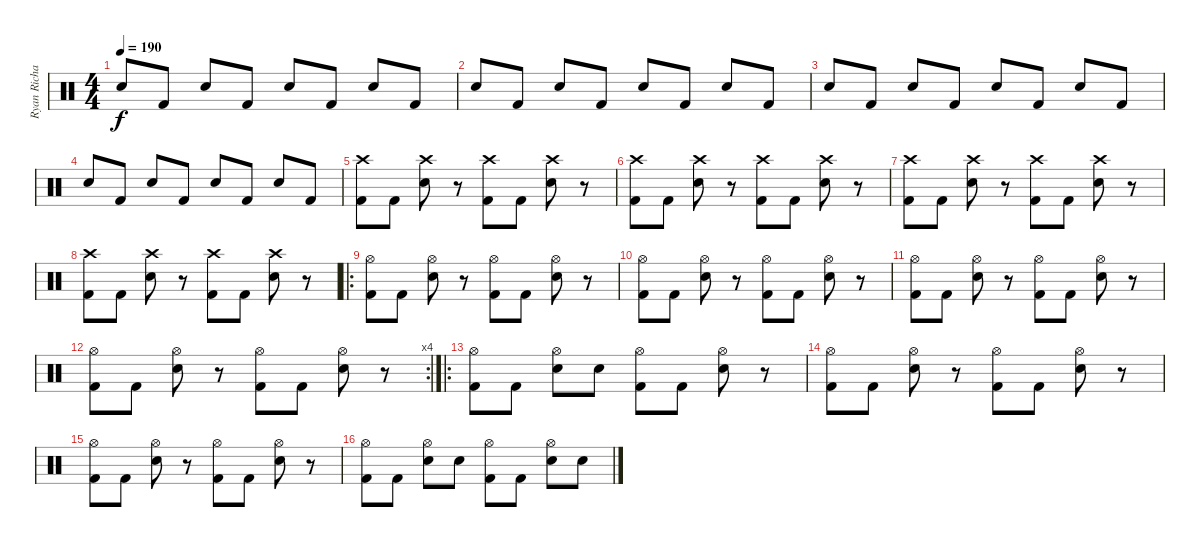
\track ("Ryan Richards" "Ryan Richa") {instrument percussion}
\staff {score}
\articulation defaults
\ts (4 4)
\tempo 190
\clef neutral
\ks c "Snare (hit) 2".8{dy f} "Kick (hit) 2".8 "Snare (hit) 2".8 "Kick (hit) 2".8 "Snare (hit) 2".8 "Kick (hit) 2".8 "Snare (hit) 2".8 "Kick (hit) 2".8
|
"Snare (hit) 2".8 "Kick (hit) 2".8 "Snare (hit) 2".8 "Kick (hit) 2".8 "Snare (hit) 2".8 "Kick (hit) 2".8 "Snare (hit) 2".8 "Kick (hit) 2".8 |
"Snare (hit) 2".8 "Kick (hit) 2".8 "Snare (hit) 2".8 "Kick (hit) 2".8 "Snare (hit) 2".8 "Kick (hit) 2".8 "Snare (hit) 2".8 "Kick (hit) 2".8 |
"Snare (hit) 2".8 "Kick (hit) 2".8 "Snare (hit) 2".8 "Kick (hit) 2".8 "Snare (hit) 2".8 "Kick (hit) 2".8 "Snare (hit) 2".8 "Kick (hit) 2".8 |
("Crash high (hit)" "Kick (hit) 2").8 "Kick (hit) 2".8 ("Crash high (hit)" "Snare (hit) 2").8 r.8 ("Crash high (hit)" "Kick (hit) 2").8 "Kick (hit) 2".8 ("Crash high (hit)" "Snare (hit) 2").8 r.8 |
("Crash high (hit)" "Kick (hit) 2").8 "Kick (hit) 2".8 ("Crash high (hit)" "Snare (hit) 2").8 r.8 ("Crash high (hit)" "Kick (hit) 2").8 "Kick (hit) 2".8 ("Crash high (hit)" "Snare (hit) 2").8 r.8 |
("Crash high (hit)" "Kick (hit) 2").8 "Kick (hit) 2".8 ("Crash high (hit)" "Snare (hit) 2").8 r.8 ("Crash high (hit)" "Kick (hit) 2").8 "Kick (hit) 2".8 ("Crash high (hit)" "Snare (hit) 2").8 r.8 |
("Crash high (hit)" "Kick (hit) 2").8 "Kick (hit) 2".8 ("Crash high (hit)" "Snare (hit) 2").8 r.8 ("Crash high (hit)" "Kick (hit) 2").8 "Kick (hit) 2".8 ("Crash high (hit)" "Snare (hit) 2").8 r.8 |
\ro
("Hi-Hat (open)" "Kick (hit) 2").8 "Kick (hit) 2".8 ("Hi-Hat (open)" "Snare (hit) 2").8 r.8 ("Hi-Hat (open)" "Kick (hit) 2").8 "Kick (hit) 2".8 ("Hi-Hat (open)" "Snare (hit) 2").8 r.8 |
("Hi-Hat (open)" "Kick (hit) 2").8 "Kick (hit) 2".8 ("Hi-Hat (open)" "Snare (hit) 2").8 r.8 ("Hi-Hat (open)" "Kick (hit) 2").8 "Kick (hit) 2".8 ("Hi-Hat (open)" "Snare (hit) 2").8 r.8 |
("Hi-Hat (open)" "Kick (hit) 2").8 "Kick (hit) 2".8 ("Hi-Hat (open)" "Snare (hit) 2").8 r.8 ("Hi-Hat (open)" "Kick (hit) 2").8 "Kick (hit) 2".8 ("Hi-Hat (open)" "Snare (hit) 2").8 r.8 |
\rc 4
("Hi-Hat (open)" "Kick (hit) 2").8 "Kick (hit) 2".8 ("Hi-Hat (open)" "Snare (hit) 2").8 r.8 ("Hi-Hat (open)" "Kick (hit) 2").8 "Kick (hit) 2".8 ("Hi-Hat (open)" "Snare (hit) 2").8 r.8 |
\ro
("Hi-Hat (open)" "Kick (hit) 2").8 "Kick (hit) 2".8 ("Hi-Hat (open)" "Snare (hit) 2").8 "Snare (hit) 2".8 ("Hi-Hat (open)" "Kick (hit) 2").8 "Kick (hit) 2".8 ("Hi-Hat (open)" "Snare (hit) 2").8 r.8 |
("Hi-Hat (open)" "Kick (hit) 2").8 "Kick (hit) 2".8 ("Hi-Hat (open)" "Snare (hit) 2").8 r.8 ("Hi-Hat (open)" "Kick (hit) 2").8 "Kick (hit) 2".8 ("Hi-Hat (open)" "Snare (hit) 2").8 r.8 |
("Hi-Hat (open)" "Kick (hit) 2").8 "Kick (hit) 2".8 ("Hi-Hat (open)" "Snare (hit) 2").8 r.8 ("Hi-Hat (open)" "Kick (hit) 2").8 "Kick (hit) 2".8 ("Hi-Hat (open)" "Snare (hit) 2").8 r.8 |
("Hi-Hat (open)" "Kick (hit) 2").8 "Kick (hit) 2".8 ("Hi-Hat (open)" "Snare (hit) 2").8 "Snare (hit) 2".8 ("Hi-Hat (open)" "Kick (hit) 2").8 "Kick (hit) 2".8 ("Hi-Hat (open)" "Snare (hit) 2").8 "Snare (hit) 2".8
